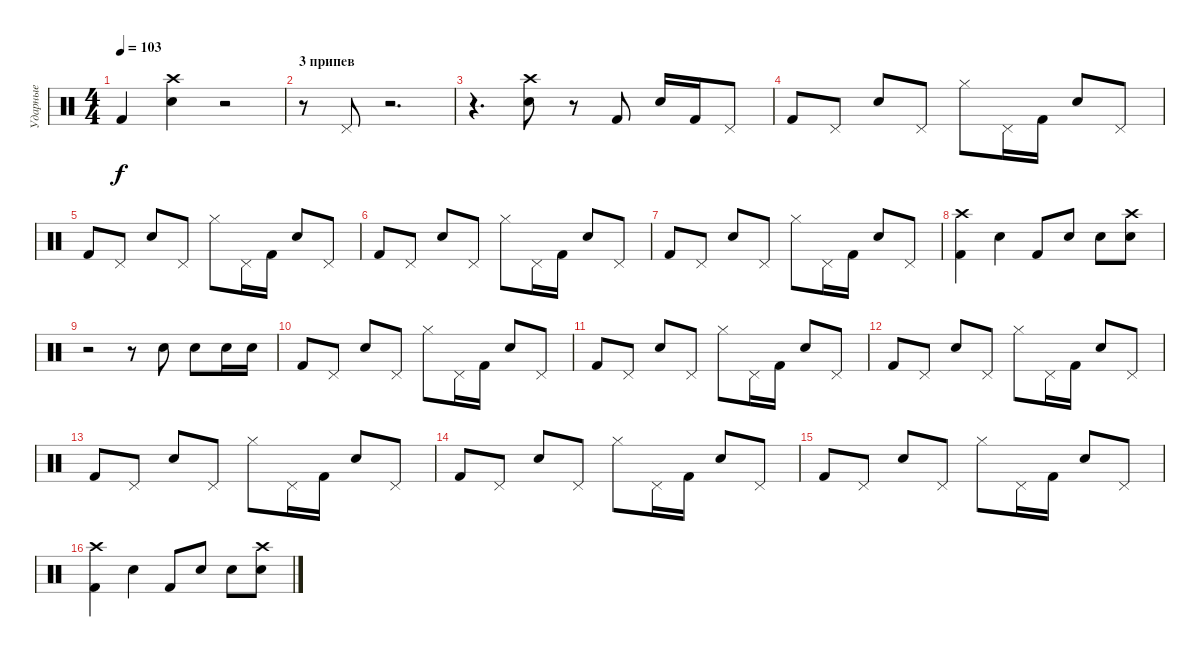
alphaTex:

\track ("Ударные" "Ударные") {instrument percussion}
\staff {score}
\articulation defaults
\ts (4 4)
\tempo 103
\clef neutral
\ks c "Kick (hit) 2".4{dy f}
("Crash high (hit)" "Snare (hit) 2").4 r.2 |
\section ("" "3 припев")
r.8 "Pedal Hi-Hat (hit)".8 r.2{d} |
r.4{d} ("Crash high (hit)" "Snare (hit) 2").8 r.8 "Kick (hit) 2".8 "Snare (hit) 2".16 "Kick (hit) 2".16 "Pedal Hi-Hat (hit)".8 |
"Kick (hit) 2".8 "Pedal Hi-Hat (hit)".8 "Snare (hit) 2".8 "Pedal Hi-Hat (hit)".8 "Hi-Hat (closed)".8 "Pedal Hi-Hat (hit)".16 "Kick (hit) 2".16 "Snare (hit) 2".8 "Pedal Hi-Hat (hit)".8 |
"Kick (hit) 2".8 "Pedal Hi-Hat (hit)".8 "Snare (hit) 2".8 "Pedal Hi-Hat (hit)".8 "Hi-Hat (closed)".8 "Pedal Hi-Hat (hit)".16 "Kick (hit) 2".16 "Snare (hit) 2".8 "Pedal Hi-Hat (hit)".8 |
"Kick (hit) 2".8 "Pedal Hi-Hat (hit)".8 "Snare (hit) 2".8 "Pedal Hi-Hat (hit)".8 "Hi-Hat (closed)".8 "Pedal Hi-Hat (hit)".16 "Kick (hit) 2".16 "Snare (hit) 2".8 "Pedal Hi-Hat (hit)".8 |
"Kick (hit) 2".8 "Pedal Hi-Hat (hit)".8 "Snare (hit) 2".8 "Pedal Hi-Hat (hit)".8 "Hi-Hat (closed)".8 "Pedal Hi-Hat (hit)".16 "Kick (hit) 2".16 "Snare (hit) 2".8 "Pedal Hi-Hat (hit)".8 |
("Crash high (hit)" "Kick (hit) 2").4 "Snare (hit) 2".4 "Kick (hit) 2".8 "Snare (hit) 2".8 "Snare (hit) 2".8 ("Crash high (hit)" "Snare (hit) 2").8 |
r.2 r.8 "Snare (hit) 2".8 "Snare (hit) 2".8 "Snare (hit) 2".16 "Snare (hit) 2".16 |
"Kick (hit) 2".8 "Pedal Hi-Hat (hit)".8 "Snare (hit) 2".8 "Pedal Hi-Hat (hit)".8 "Hi-Hat (closed)".8 "Pedal Hi-Hat (hit)".16 "Kick (hit) 2".16 "Snare (hit) 2".8 "Pedal Hi-Hat (hit)".8 |
"Kick (hit) 2".8 "Pedal Hi-Hat (hit)".8 "Snare (hit) 2".8 "Pedal Hi-Hat (hit)".8 "Hi-Hat (closed)".8 "Pedal Hi-Hat (hit)".16 "Kick (hit) 2".16 "Snare (hit) 2".8 "Pedal Hi-Hat (hit)".8 |
"Kick (hit) 2".8 "Pedal Hi-Hat (hit)".8 "Snare (hit) 2".8 "Pedal Hi-Hat (hit)".8 "Hi-Hat (closed)".8 "Pedal Hi-Hat (hit)".16 "Kick (hit) 2".16 "Snare (hit) 2".8 "Pedal Hi-Hat (hit)".8 |
"Kick (hit) 2".8 "Pedal Hi-Hat (hit)".8 "Snare (hit) 2".8 "Pedal Hi-Hat (hit)".8 "Hi-Hat (closed)".8 "Pedal Hi-Hat (hit)".16 "Kick (hit) 2".16 "Snare (hit) 2".8 "Pedal Hi-Hat (hit)".8 |
"Kick (hit) 2".8 "Pedal Hi-Hat (hit)".8 "Snare (hit) 2".8 "Pedal Hi-Hat (hit)".8 "Hi-Hat (closed)".8 "Pedal Hi-Hat (hit)".16 "Kick (hit) 2".16 "Snare (hit) 2".8 "Pedal Hi-Hat (hit)".8 |
"Kick (hit) 2".8 "Pedal Hi-Hat (hit)".8 "Snare (hit) 2".8 "Pedal Hi-Hat (hit)".8 "Hi-Hat (closed)".8 "Pedal Hi-Hat (hit)".16 "Kick (hit) 2".16 "Snare (hit) 2".8 "Pedal Hi-Hat (hit)".8 |
("Crash high (hit)" "Kick (hit) 2").4 "Snare (hit) 2".4 "Kick (hit) 2".8 "Snare (hit) 2".8 "Snare (hit) 2".8 ("Crash high (hit)" "Snare (hit) 2").8
